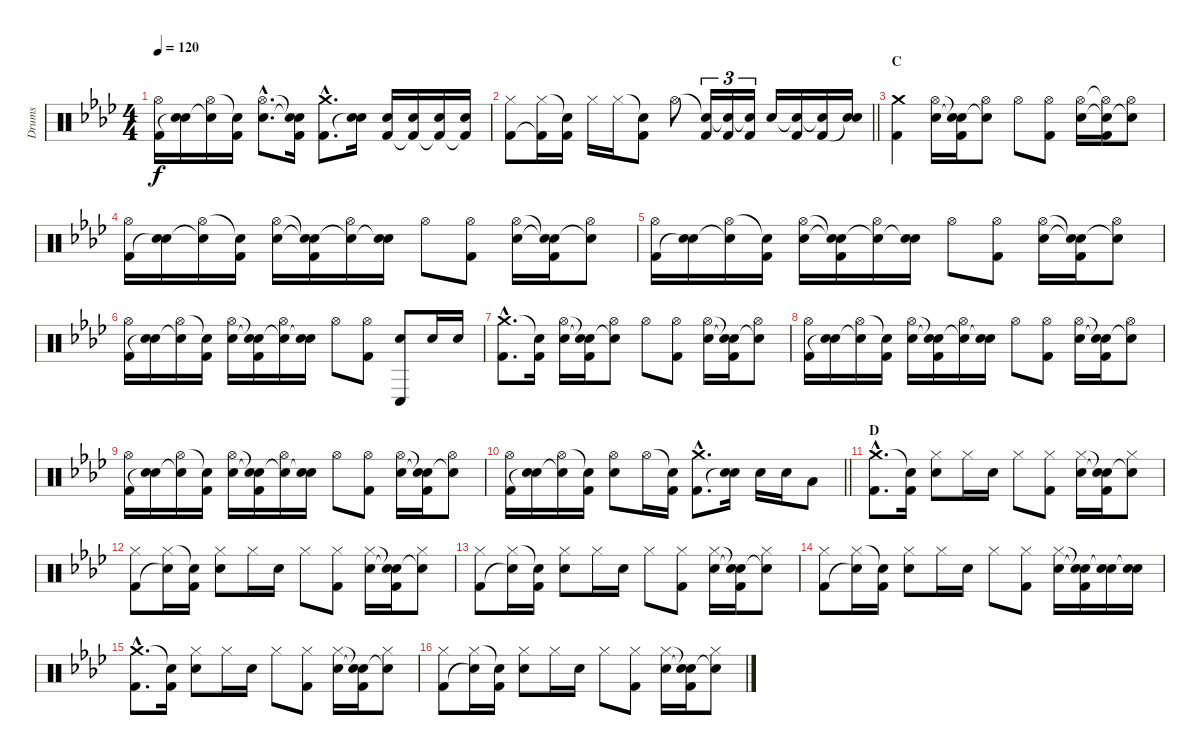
\track ("Drums" "Drums") {instrument percussion}
\staff {score}
\articulation defaults
\ts (4 4)
\tempo 120
\clef neutral
\ks fminor
("Hi-Hat (open)" "Kick (hit) 2").16{dy f} ("Electric Snare (hit)" "Snare (hit)"{t}).16 ("Hi-Hat (open)" "Snare (hit)"{t}).16 ("Snare (hit)"{t} "Kick (hit) 2").16 ("Hi-Hat (open)"{hac} "Electric Snare (hit)"{hac}).8{d} ("Snare (hit)"{t} "Snare (hit)"{t} "Kick (hit) 2").16 ("Crash medium (hit)"{hac} "Kick (hit) 2"{hac}).8{d} ("Electric Snare (hit)" "Snare (hit)"{t}).16 ("Electric Snare (hit)" "Kick (hit) 2").16 ("Electric Snare (hit)" "Kick (hit) 2"{t}).16 ("Electric Snare (hit)" "Kick (hit) 2"{t}).16 ("Electric Snare (hit)" "Kick (hit) 2"{t}).16 |
\barLineRight lightlight
("Hi-Hat (closed)" "Kick (hit) 2").8 ("Hi-Hat (closed)" "Kick (hit) 2"{t}).16 ("Snare (hit)"{t} "Kick (hit) 2").16 "Hi-Hat (closed)".16 "Hi-Hat (closed)".16 ("Snare (hit)"{t} "Kick (hit) 2").8 "Hi-Hat (open)".8 ("Snare (hit)"{t} "Kick (hit) 2").16{tu (3 2)} ("Snare (hit)"{t} "Kick (hit) 2").16{tu (3 2)} ("Snare (hit)"{t} "Kick (hit) 2").16{tu (3 2)} "Electric Snare (hit)".16 ("Snare (hit)"{t} "Kick (hit) 2").16 ("Snare (hit)"{t} "Kick (hit) 2").16 ("Electric Snare (hit)" "Snare (hit)"{t}).16 |
\section ("" "C")
("Crash medium (hit)" "Kick (hit) 2").4 ("Hi-Hat (open)" "Electric Snare (hit)").16 ("Snare (hit)"{t} "Snare (hit)"{t} "Kick (hit) 2").16 ("Hi-Hat (open)" "Snare (hit)"{t}).8 "Hi-Hat (open)".8 ("Hi-Hat (open)" "Kick (hit) 2").8 ("Hi-Hat (open)" "Electric Snare (hit)").16 ("Hi-Hat (open)"{t} "Snare (hit)"{t} "Kick (hit) 2").16 ("Hi-Hat (open)" "Snare (hit)"{t}).8 |
("Hi-Hat (open)" "Kick (hit) 2").16 ("Electric Snare (hit)" "Snare (hit)"{t}).16 ("Hi-Hat (open)" "Snare (hit)"{t}).16 ("Snare (hit)"{t} "Kick (hit) 2").16 ("Hi-Hat (open)" "Electric Snare (hit)").16 ("Snare (hit)"{t} "Snare (hit)"{t} "Kick (hit) 2").16 ("Hi-Hat (open)" "Snare (hit)"{t}).16 ("Electric Snare (hit)" "Snare (hit)"{t}).16 "Hi-Hat (open)".8 ("Hi-Hat (open)" "Kick (hit) 2").8 ("Hi-Hat (open)" "Electric Snare (hit)").16 ("Snare (hit)"{t} "Snare (hit)"{t} "Kick (hit) 2").16 ("Hi-Hat (open)" "Snare (hit)"{t}).8 |
("Hi-Hat (open)" "Kick (hit) 2").16 ("Electric Snare (hit)" "Snare (hit)"{t}).16 ("Hi-Hat (open)" "Snare (hit)"{t}).16 ("Snare (hit)"{t} "Kick (hit) 2").16 ("Hi-Hat (open)" "Electric Snare (hit)").16 ("Snare (hit)"{t} "Snare (hit)"{t} "Kick (hit) 2").16 ("Hi-Hat (open)" "Snare (hit)"{t}).16 ("Electric Snare (hit)" "Snare (hit)"{t}).16 "Hi-Hat (open)".8 ("Hi-Hat (open)" "Kick (hit) 2").8 ("Hi-Hat (open)" "Electric Snare (hit)").16 ("Snare (hit)"{t} "Snare (hit)"{t} "Kick (hit) 2").16 ("Hi-Hat (open)" "Snare (hit)"{t}).8 |
("Hi-Hat (open)" "Kick (hit) 2").16 ("Electric Snare (hit)" "Snare (hit)"{t}).16 ("Hi-Hat (open)" "Snare (hit)"{t}).16 ("Snare (hit)"{t} "Kick (hit) 2").16 ("Hi-Hat (open)" "Electric Snare (hit)").16 ("Snare (hit)"{t} "Snare (hit)"{t} "Kick (hit) 2").16 ("Hi-Hat (open)" "Snare (hit)"{t}).16 ("Electric Snare (hit)" "Snare (hit)"{t}).16 "Hi-Hat (open)".8 ("Hi-Hat (open)" "Kick (hit) 2").8 ("Conga low (hit)" "Electric Snare (hit)").8 "Electric Snare (hit)".16 "Electric Snare (hit)".16 |
("Crash medium (hit)"{hac} "Kick (hit) 2"{hac}).8{d} ("Snare (hit)"{t} "Kick (hit) 2").16 ("Hi-Hat (open)" "Electric Snare (hit)").16 ("Snare (hit)"{t} "Snare (hit)"{t} "Kick (hit) 2").16 ("Hi-Hat (open)" "Snare (hit)"{t}).8 "Hi-Hat (open)".8 ("Hi-Hat (open)" "Kick (hit) 2").8 ("Hi-Hat (open)" "Electric Snare (hit)").16 ("Snare (hit)"{t} "Snare (hit)"{t} "Kick (hit) 2").16 ("Hi-Hat (open)" "Snare (hit)"{t}).8 |
("Hi-Hat (open)" "Kick (hit) 2").16 ("Electric Snare (hit)" "Snare (hit)"{t}).16 ("Hi-Hat (open)" "Snare (hit)"{t}).16 ("Snare (hit)"{t} "Kick (hit) 2").16 ("Hi-Hat (open)" "Electric Snare (hit)").16 ("Snare (hit)"{t} "Snare (hit)"{t} "Kick (hit) 2").16 ("Hi-Hat (open)" "Snare (hit)"{t}).16 ("Electric Snare (hit)" "Snare (hit)"{t}).16 "Hi-Hat (open)".8 ("Hi-Hat (open)" "Kick (hit) 2").8 ("Hi-Hat (open)" "Electric Snare (hit)").16 ("Snare (hit)"{t} "Snare (hit)"{t} "Kick (hit) 2").16 ("Hi-Hat (open)" "Snare (hit)"{t}).8 |
("Hi-Hat (open)" "Kick (hit) 2").16 ("Electric Snare (hit)" "Snare (hit)"{t}).16 ("Hi-Hat (open)" "Snare (hit)"{t}).16 ("Snare (hit)"{t} "Kick (hit) 2").16 ("Hi-Hat (open)" "Electric Snare (hit)").16 ("Snare (hit)"{t} "Snare (hit)"{t} "Kick (hit) 2").16 ("Hi-Hat (open)" "Snare (hit)"{t}).16 ("Electric Snare (hit)" "Snare (hit)"{t}).16 "Hi-Hat (open)".8 ("Hi-Hat (open)" "Kick (hit) 2").8 ("Hi-Hat (open)" "Electric Snare (hit)").16 ("Snare (hit)"{t} "Snare (hit)"{t} "Kick (hit) 2").16 ("Hi-Hat (open)" "Snare (hit)"{t}).8 |
\barLineRight lightlight
("Hi-Hat (open)" "Kick (hit) 2").16 ("Electric Snare (hit)" "Snare (hit)"{t}).16 ("Hi-Hat (open)" "Snare (hit)"{t}).16 ("Snare (hit)"{t} "Kick (hit) 2").16 ("Hi-Hat (open)" "Electric Snare (hit)").8 "Hi-Hat (open)".16 ("Snare (hit)"{t} "Kick (hit) 2").16 ("Crash medium (hit)"{hac} "Kick (hit) 2"{hac}).8{d} ("Electric Snare (hit)" "Snare (hit)"{t}).16 "Electric Snare (hit)".16 "Electric Snare (hit)".16 "Low Floor Tom (hit)".8 |
\section ("" "D")
("Crash medium (hit)"{hac} "Kick (hit) 2"{hac}).8{d} ("Snare (hit)"{t} "Kick (hit) 2").16 ("Hi-Hat (closed)" "Electric Snare (hit)").8 "Hi-Hat (closed)".16 "Electric Snare (hit)".16 "Hi-Hat (closed)".8 ("Hi-Hat (closed)" "Kick (hit) 2").8 ("Hi-Hat (closed)" "Electric Snare (hit)").16 ("Snare (hit)"{t} "Snare (hit)"{t} "Kick (hit) 2").16 ("Hi-Hat (closed)" "Snare (hit)"{t}).8 |
("Hi-Hat (closed)" "Kick (hit) 2").8 ("Hi-Hat (closed)" "Snare (hit)"{t}).16 ("Snare (hit)"{t} "Kick (hit) 2").16 ("Hi-Hat (closed)" "Electric Snare (hit)").8 "Hi-Hat (closed)".16 "Electric Snare (hit)".16 "Hi-Hat (closed)".8 ("Hi-Hat (closed)" "Kick (hit) 2").8 ("Hi-Hat (closed)" "Electric Snare (hit)").16 ("Snare (hit)"{t} "Snare (hit)"{t} "Kick (hit) 2").16 ("Hi-Hat (closed)" "Snare (hit)"{t}).8 |
("Hi-Hat (closed)" "Kick (hit) 2").8 ("Hi-Hat (closed)" "Snare (hit)"{t}).16 ("Snare (hit)"{t} "Kick (hit) 2").16 ("Hi-Hat (closed)" "Electric Snare (hit)").8 "Hi-Hat (closed)".16 "Electric Snare (hit)".16 "Hi-Hat (closed)".8 ("Hi-Hat (closed)" "Kick (hit) 2").8 ("Hi-Hat (closed)" "Electric Snare (hit)").16 ("Snare (hit)"{t} "Snare (hit)"{t} "Kick (hit) 2").16 ("Hi-Hat (closed)" "Snare (hit)"{t}).8 |
("Hi-Hat (closed)" "Kick (hit) 2").8 ("Hi-Hat (closed)" "Snare (hit)"{t}).16 ("Snare (hit)"{t} "Kick (hit) 2").16 ("Hi-Hat (closed)" "Electric Snare (hit)").8 "Hi-Hat (closed)".16 "Electric Snare (hit)".16 "Hi-Hat (closed)".8 ("Hi-Hat (closed)" "Kick (hit) 2").8 ("Hi-Hat (closed)" "Electric Snare (hit)").16 ("Snare (hit)"{t} "Snare (hit)"{t} "Kick (hit) 2").16 ("Electric Snare (hit)" "Snare (hit)"{t}).16 ("Electric Snare (hit)" "Snare (hit)"{t}).16 |
("Crash medium (hit)"{hac} "Kick (hit) 2"{hac}).8{d} ("Snare (hit)"{t} "Kick (hit) 2").16 ("Hi-Hat (closed)" "Electric Snare (hit)").8 "Hi-Hat (closed)".16 "Electric Snare (hit)".16 "Hi-Hat (closed)".8 ("Hi-Hat (closed)" "Kick (hit) 2").8 ("Hi-Hat (closed)" "Electric Snare (hit)").16 ("Snare (hit)"{t} "Snare (hit)"{t} "Kick (hit) 2").16 ("Hi-Hat (closed)" "Snare (hit)"{t}).8 |
("Hi-Hat (closed)" "Kick (hit) 2").8 ("Hi-Hat (closed)" "Snare (hit)"{t}).16 ("Snare (hit)"{t} "Kick (hit) 2").16 ("Hi-Hat (closed)" "Electric Snare (hit)").8 "Hi-Hat (closed)".16 "Electric Snare (hit)".16 "Hi-Hat (closed)".8 ("Hi-Hat (closed)" "Kick (hit) 2").8 ("Hi-Hat (closed)" "Electric Snare (hit)").16 ("Snare (hit)"{t} "Snare (hit)"{t} "Kick (hit) 2").16 ("Hi-Hat (closed)" "Snare (hit)"{t}).8
